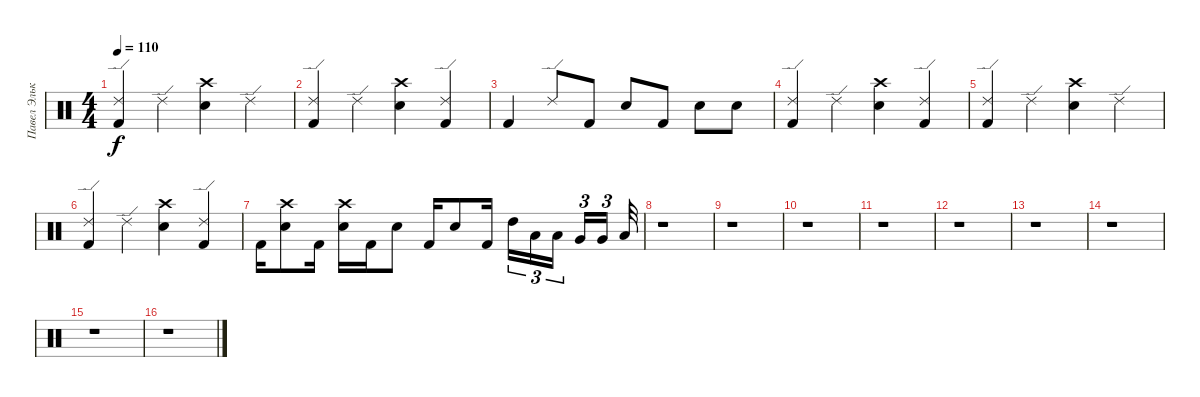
\track ("Павел Элькинд" "Павел Эльк") {instrument percussion}
\staff {score}
\articulation defaults
\ts (4 4)
\tempo 110
\clef neutral
\ks c
("Kick (hit) 2" "Ride (edge) 2").4{dy f} "Ride (edge) 2".4 ("Electric Snare (hit)" "Crash high (hit)").4 "Ride (edge) 2".4 |
("Kick (hit) 2" "Ride (edge) 2").4 "Ride (edge) 2".4 ("Electric Snare (hit)" "Crash high (hit)").4 ("Kick (hit) 2" "Ride (edge) 2").4 |
"Kick (hit) 2".4 "Ride (edge) 2".8 "Kick (hit) 2".8 "Electric Snare (hit)".8 "Kick (hit) 2".8 "Electric Snare (hit)".8 "Electric Snare (hit)".8 |
("Kick (hit) 2" "Ride (edge) 2").4 "Ride (edge) 2".4 ("Electric Snare (hit)" "Crash high (hit)").4 ("Kick (hit) 2" "Ride (edge) 2").4 |
("Kick (hit) 2" "Ride (edge) 2").4 "Ride (edge) 2".4 ("Electric Snare (hit)" "Crash high (hit)").4 "Ride (edge) 2".4 |
("Kick (hit) 2" "Ride (edge) 2").4 "Ride (edge) 2".4 ("Electric Snare (hit)" "Crash high (hit)").4 ("Kick (hit) 2" "Ride (edge) 2").4 |
"Kick (hit) 2".16 ("Electric Snare (hit)" "Crash high (hit)").8 "Kick (hit) 2".16 ("Electric Snare (hit)" "Crash high (hit)").16 "Kick (hit) 2".16 "Electric Snare (hit)".8 "Kick (hit) 2".16 "Electric Snare (hit)".8 "Kick (hit) 2".16 "High Tom (hit)".16{tu (3 2)} "Low Tom (hit)".16{tu (3 2)} "Low Tom (hit)".16{tu (3 2) beam splitsecondary} "Very Low Tom (hit)".16{tu (3 2)} "Very Low Tom (hit)".16{tu (3 2) beam splitsecondary} "Low Floor Tom (hit)".32 |
r.1 |
r.1 |
r.1 |
r.1 |
r.1 |
r.1 |
r.1 |
r.1 |
r.1
